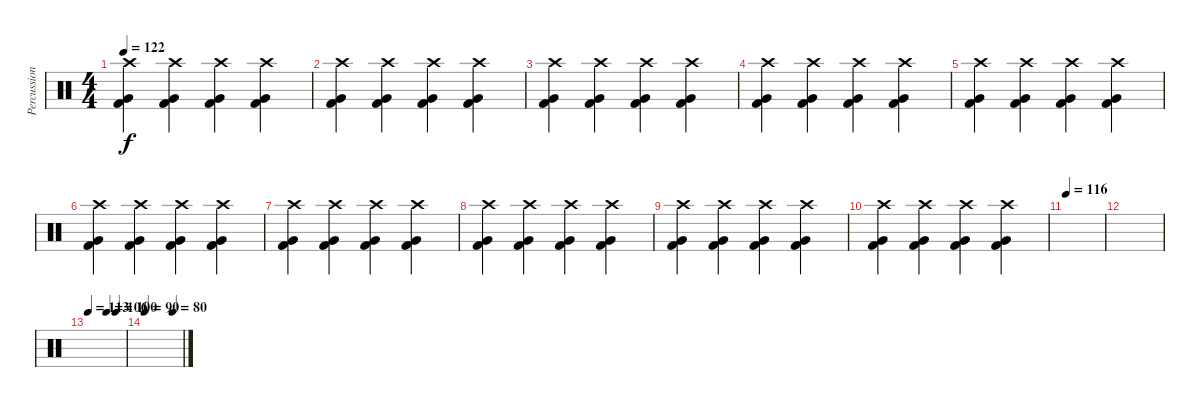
\track ("Percussion" "Percussion") {instrument percussion}
\staff {score}
\articulation defaults
\ts (4 4)
\tempo 122
\clef neutral
\ks c
("Crash high (hit)" "Very Low Tom (hit)" "Kick (hit) 2").4{dy f} ("Crash high (hit)" "Very Low Tom (hit)" "Kick (hit) 2").4 ("Crash high (hit)" "Very Low Tom (hit)" "Kick (hit) 2").4 ("Crash high (hit)" "Very Low Tom (hit)" "Kick (hit) 2").4 |
("Crash high (hit)" "Very Low Tom (hit)" "Kick (hit) 2").4 ("Crash high (hit)" "Very Low Tom (hit)" "Kick (hit) 2").4 ("Crash high (hit)" "Very Low Tom (hit)" "Kick (hit) 2").4 ("Crash high (hit)" "Very Low Tom (hit)" "Kick (hit) 2").4 |
("Crash high (hit)" "Very Low Tom (hit)" "Kick (hit) 2").4 ("Crash high (hit)" "Very Low Tom (hit)" "Kick (hit) 2").4 ("Crash high (hit)" "Very Low Tom (hit)" "Kick (hit) 2").4 ("Crash high (hit)" "Very Low Tom (hit)" "Kick (hit) 2").4 |
("Crash high (hit)" "Very Low Tom (hit)" "Kick (hit) 2").4 ("Crash high (hit)" "Very Low Tom (hit)" "Kick (hit) 2").4 ("Crash high (hit)" "Very Low Tom (hit)" "Kick (hit) 2").4 ("Crash high (hit)" "Very Low Tom (hit)" "Kick (hit) 2").4 |
("Crash high (hit)" "Very Low Tom (hit)" "Kick (hit) 2").4 ("Crash high (hit)" "Very Low Tom (hit)" "Kick (hit) 2").4 ("Crash high (hit)" "Very Low Tom (hit)" "Kick (hit) 2").4 ("Crash high (hit)" "Very Low Tom (hit)" "Kick (hit) 2").4 |
("Crash high (hit)" "Very Low Tom (hit)" "Kick (hit) 2").4 ("Crash high (hit)" "Very Low Tom (hit)" "Kick (hit) 2").4 ("Crash high (hit)" "Very Low Tom (hit)" "Kick (hit) 2").4 ("Crash high (hit)" "Very Low Tom (hit)" "Kick (hit) 2").4 |
("Crash high (hit)" "Very Low Tom (hit)" "Kick (hit) 2").4 ("Crash high (hit)" "Very Low Tom (hit)" "Kick (hit) 2").4 ("Crash high (hit)" "Very Low Tom (hit)" "Kick (hit) 2").4 ("Crash high (hit)" "Very Low Tom (hit)" "Kick (hit) 2").4 |
("Crash high (hit)" "Very Low Tom (hit)" "Kick (hit) 2").4 ("Crash high (hit)" "Very Low Tom (hit)" "Kick (hit) 2").4 ("Crash high (hit)" "Very Low Tom (hit)" "Kick (hit) 2").4 ("Crash high (hit)" "Very Low Tom (hit)" "Kick (hit) 2").4 |
("Crash high (hit)" "Very Low Tom (hit)" "Kick (hit) 2").4 ("Crash high (hit)" "Very Low Tom (hit)" "Kick (hit) 2").4 ("Crash high (hit)" "Very Low Tom (hit)" "Kick (hit) 2").4 ("Crash high (hit)" "Very Low Tom (hit)" "Kick (hit) 2").4 |
("Crash high (hit)" "Very Low Tom (hit)" "Kick (hit) 2").4 ("Crash high (hit)" "Very Low Tom (hit)" "Kick (hit) 2").4 ("Crash high (hit)" "Very Low Tom (hit)" "Kick (hit) 2").4 ("Crash high (hit)" "Very Low Tom (hit)" "Kick (hit) 2").4 |
\tempo 116
|
|
\tempo 113
\tempo (106 0.5)
\tempo (100 0.75)
|
\tempo 90
\tempo (80 0.75)
